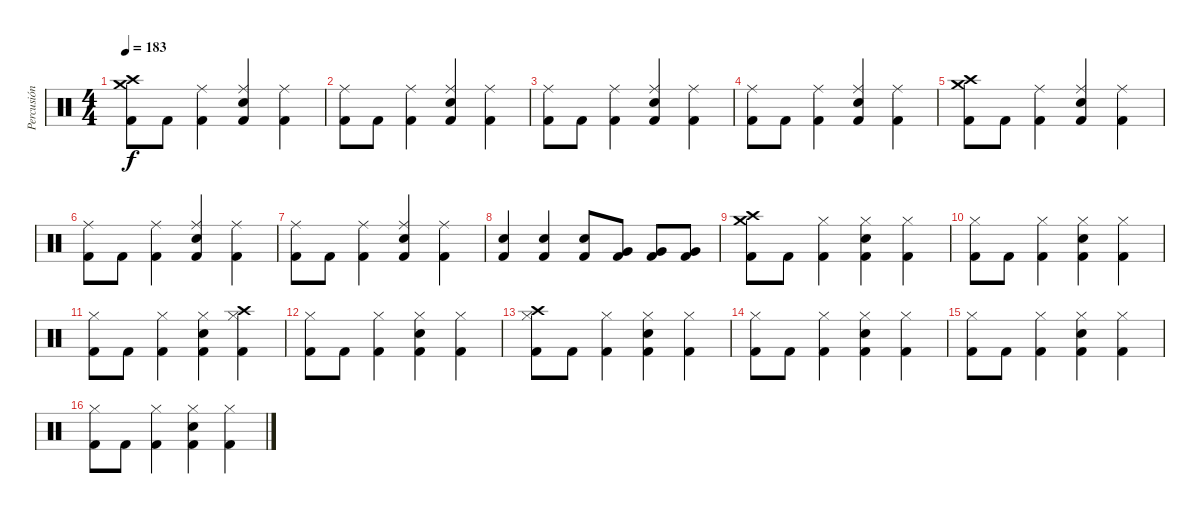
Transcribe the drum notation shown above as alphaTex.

\track ("Percusión" "Percusión") {instrument percussion}
\staff {score}
\articulation defaults
\ts (4 4)
\tempo 183
\clef neutral
\ks c
("Kick (hit) 2" "Crash medium (hit)" "Crash high (hit)").8{dy f} "Kick (hit) 2".8 ("Kick (hit) 2" "Ride (middle)").4 ("Kick (hit) 2" "Electric Snare (hit)" "Ride (middle)").4 ("Kick (hit) 2" "Ride (middle)").4 |
("Kick (hit) 2" "Ride (middle)").8 "Kick (hit) 2".8 ("Kick (hit) 2" "Ride (middle)").4 ("Kick (hit) 2" "Electric Snare (hit)" "Ride (middle)").4 ("Kick (hit) 2" "Ride (middle)").4 |
("Kick (hit) 2" "Ride (middle)").8 "Kick (hit) 2".8 ("Kick (hit) 2" "Ride (middle)").4 ("Kick (hit) 2" "Electric Snare (hit)" "Ride (middle)").4 ("Kick (hit) 2" "Ride (middle)").4 |
("Kick (hit) 2" "Ride (middle)").8 "Kick (hit) 2".8 ("Kick (hit) 2" "Ride (middle)").4 ("Kick (hit) 2" "Electric Snare (hit)" "Ride (middle)").4 ("Kick (hit) 2" "Ride (middle)").4 |
("Kick (hit) 2" "Crash medium (hit)" "Crash high (hit)").8 "Kick (hit) 2".8 ("Kick (hit) 2" "Ride (middle)").4 ("Kick (hit) 2" "Electric Snare (hit)" "Ride (middle)").4 ("Kick (hit) 2" "Ride (middle)").4 |
("Kick (hit) 2" "Ride (middle)").8 "Kick (hit) 2".8 ("Kick (hit) 2" "Ride (middle)").4 ("Kick (hit) 2" "Electric Snare (hit)" "Ride (middle)").4 ("Kick (hit) 2" "Ride (middle)").4 |
("Kick (hit) 2" "Ride (middle)").8 "Kick (hit) 2".8 ("Kick (hit) 2" "Ride (middle)").4 ("Kick (hit) 2" "Electric Snare (hit)" "Ride (middle)").4 ("Kick (hit) 2" "Ride (middle)").4 |
("Kick (hit) 2" "Electric Snare (hit)").4 ("Kick (hit) 2" "Electric Snare (hit)").4 ("Kick (hit) 2" "Electric Snare (hit)").8 ("Kick (hit) 2" "Very Low Tom (hit)").8 ("Kick (hit) 2" "Very Low Tom (hit)").8 ("Kick (hit) 2" "Very Low Tom (hit)").8 |
("Kick (hit) 2" "Crash medium (hit)" "Crash high (hit)").8 "Kick (hit) 2".8 ("Kick (hit) 2" "Hi-Hat (closed)").4 ("Kick (hit) 2" "Electric Snare (hit)" "Hi-Hat (closed)").4 ("Kick (hit) 2" "Hi-Hat (closed)").4 |
("Kick (hit) 2" "Hi-Hat (closed)").8 "Kick (hit) 2".8 ("Kick (hit) 2" "Hi-Hat (closed)").4 ("Kick (hit) 2" "Electric Snare (hit)" "Hi-Hat (closed)").4 ("Kick (hit) 2" "Hi-Hat (closed)").4 |
("Kick (hit) 2" "Hi-Hat (closed)").8 "Kick (hit) 2".8 ("Kick (hit) 2" "Hi-Hat (closed)").4 ("Kick (hit) 2" "Electric Snare (hit)" "Hi-Hat (closed)").4 ("Kick (hit) 2" "Hi-Hat (closed)" "Crash high (hit)").4 |
("Kick (hit) 2" "Hi-Hat (closed)").8 "Kick (hit) 2".8 ("Kick (hit) 2" "Hi-Hat (closed)").4 ("Kick (hit) 2" "Electric Snare (hit)" "Hi-Hat (closed)").4 ("Kick (hit) 2" "Hi-Hat (closed)").4 |
("Kick (hit) 2" "Hi-Hat (closed)" "Crash high (hit)").8 "Kick (hit) 2".8 ("Kick (hit) 2" "Hi-Hat (closed)").4 ("Kick (hit) 2" "Electric Snare (hit)" "Hi-Hat (closed)").4 ("Kick (hit) 2" "Hi-Hat (closed)").4 |
("Kick (hit) 2" "Hi-Hat (closed)").8 "Kick (hit) 2".8 ("Kick (hit) 2" "Hi-Hat (closed)").4 ("Kick (hit) 2" "Electric Snare (hit)" "Hi-Hat (closed)").4 ("Kick (hit) 2" "Hi-Hat (closed)").4 |
("Kick (hit) 2" "Hi-Hat (closed)").8 "Kick (hit) 2".8 ("Kick (hit) 2" "Hi-Hat (closed)").4 ("Kick (hit) 2" "Electric Snare (hit)" "Hi-Hat (closed)").4 ("Kick (hit) 2" "Hi-Hat (closed)").4 |
("Kick (hit) 2" "Hi-Hat (closed)").8 "Kick (hit) 2".8 ("Kick (hit) 2" "Hi-Hat (closed)").4 ("Kick (hit) 2" "Electric Snare (hit)" "Hi-Hat (closed)").4 ("Kick (hit) 2" "Hi-Hat (closed)").4
